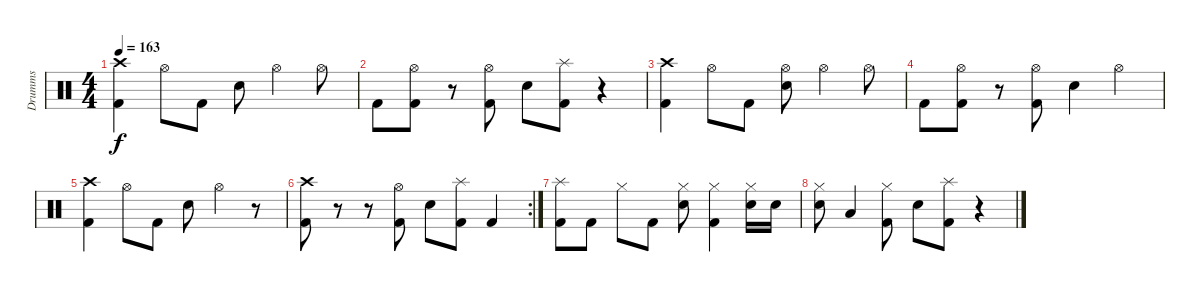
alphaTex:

\track ("Drumms" "Drumms") {instrument percussion}
\staff {score}
\articulation defaults
\ts (4 4)
\tempo 163
\clef neutral
\ks c
("Crash high (hit)" "Kick (hit) 2").4{dy f} "Hi-Hat (open)".8 "Kick (hit) 2".8 "Snare (hit) 2".8 "Hi-Hat (open)".4 "Hi-Hat (open)".8 |
"Kick (hit) 2".8 ("Hi-Hat (open)" "Kick (hit) 2").8 r.8 ("Hi-Hat (open)" "Kick (hit) 2").8 "Snare (hit) 2".8 ("Splash (hit)" "Kick (hit) 2").8 r.4 |
("Crash high (hit)" "Kick (hit) 2").4 "Hi-Hat (open)".8 "Kick (hit) 2".8 ("Hi-Hat (open)" "Snare (hit) 2").8 "Hi-Hat (open)".4 "Hi-Hat (open)".8 |
"Kick (hit) 2".8 ("Hi-Hat (open)" "Kick (hit) 2").8 r.8 ("Hi-Hat (open)" "Kick (hit) 2").8 "Snare (hit) 2".4 "Hi-Hat (open)".4 |
("Crash high (hit)" "Kick (hit) 2").4 "Hi-Hat (open)".8 "Kick (hit) 2".8 "Snare (hit) 2".8 "Hi-Hat (open)".4 r.8 |
\rc 2
("Crash high (hit)" "Kick (hit) 2").8 r.8 r.8 ("Hi-Hat (open)" "Kick (hit) 2").8 "Snare (hit) 2".8 ("Splash (hit)" "Kick (hit) 2").8 "Kick (hit) 2".4 |
("Splash (hit)" "Kick (hit) 2").8 "Kick (hit) 2".8 "Hi-Hat (closed)".8 "Kick (hit) 2".8 ("Hi-Hat (closed)" "Snare (hit) 2").8 ("Hi-Hat (closed)" "Kick (hit) 2").4 ("Hi-Hat (closed)" "Snare (hit) 2").16 "Snare (hit) 2".16 |
("Hi-Hat (closed)" "Snare (hit) 2").8 "Low Tom (hit)".4 ("Hi-Hat (closed)" "Kick (hit) 2").8 "Snare (hit) 2".8 ("Splash (hit)" "Kick (hit) 2").8 r.4
